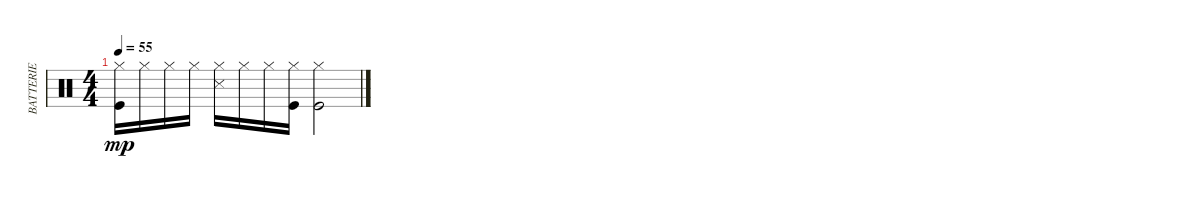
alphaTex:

\track ("BATTERIE" "BATTERIE") {instrument percussion}
\staff {score}
\articulation defaults
\ts (4 4)
\tempo 55
\clef neutral
\ks c
("Hi-Hat (closed)" "Kick (hit)").16{dy mp} "Hi-Hat (closed)".16 "Hi-Hat (closed)".16 "Hi-Hat (closed)".16 ("Hi-Hat (closed)" "Snare (side stick) 3").16 "Hi-Hat (closed)".16 "Hi-Hat (closed)".16 ("Hi-Hat (closed)" "Kick (hit)").16 ("Hi-Hat (closed)" "Kick (hit)").2
